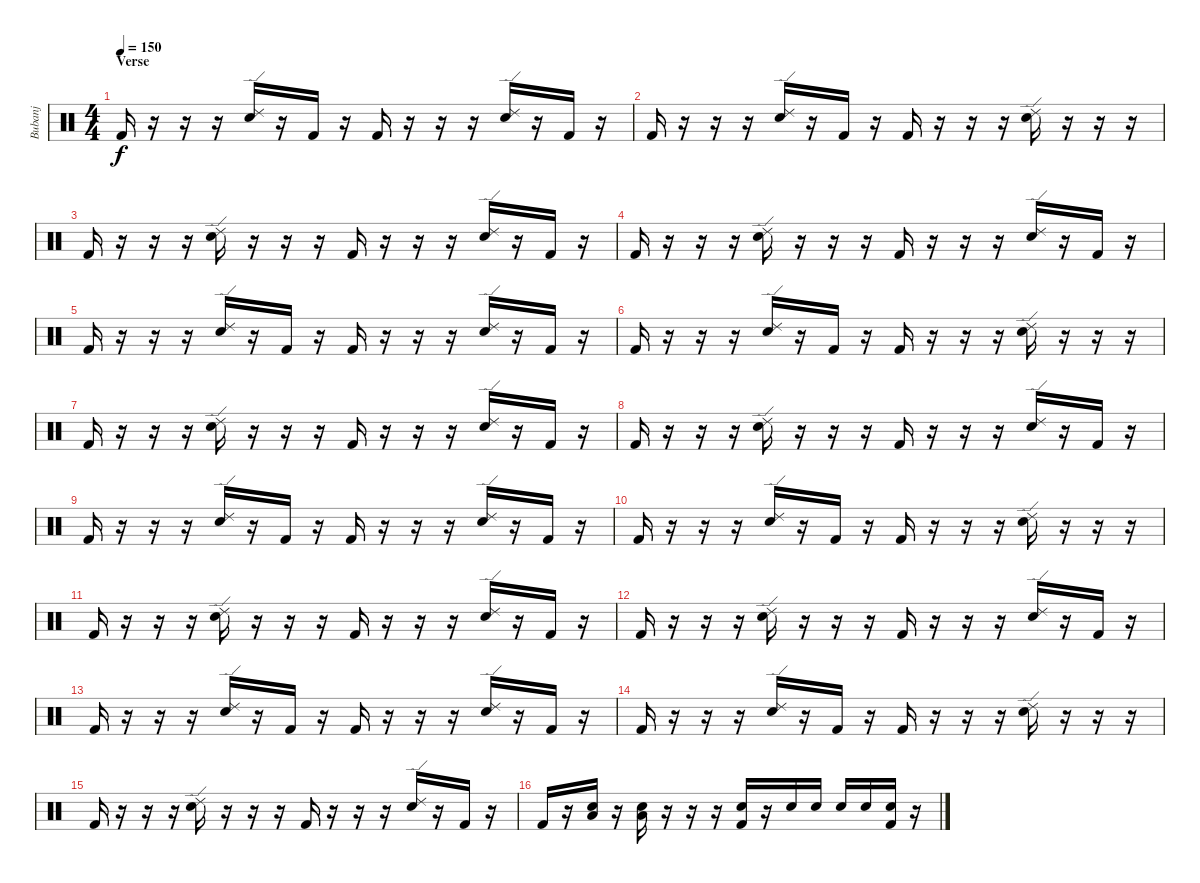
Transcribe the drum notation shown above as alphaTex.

\track ("Bubanj" "Bubanj") {instrument percussion}
\staff {score}
\articulation defaults
\ts (4 4)
\section ("" "Verse")
\tempo 150
\clef neutral
\ks c "Kick (hit) 2".16{dy f}
r.16 r.16 r.16 ("Ride (edge) 2" "Snare (hit) 2").16 r.16 "Kick (hit) 2".16 r.16 "Kick (hit) 2".16 r.16 r.16 r.16 ("Ride (edge) 2" "Snare (hit) 2").16 r.16 "Kick (hit) 2".16 r.16 |
"Kick (hit) 2".16 r.16 r.16 r.16 ("Ride (edge) 2" "Snare (hit) 2").16 r.16 "Kick (hit) 2".16 r.16 "Kick (hit) 2".16 r.16 r.16 r.16 ("Ride (edge) 2" "Snare (hit) 2").16 r.16 r.16 r.16 |
"Kick (hit) 2".16 r.16 r.16 r.16 ("Ride (edge) 2" "Snare (hit) 2").16 r.16 r.16 r.16 "Kick (hit) 2".16 r.16 r.16 r.16 ("Ride (edge) 2" "Snare (hit) 2").16 r.16 "Kick (hit) 2".16 r.16 |
"Kick (hit) 2".16 r.16 r.16 r.16 ("Ride (edge) 2" "Snare (hit) 2").16 r.16 r.16 r.16 "Kick (hit) 2".16 r.16 r.16 r.16 ("Ride (edge) 2" "Snare (hit) 2").16 r.16 "Kick (hit) 2".16 r.16 |
"Kick (hit) 2".16 r.16 r.16 r.16 ("Ride (edge) 2" "Snare (hit) 2").16 r.16 "Kick (hit) 2".16 r.16 "Kick (hit) 2".16 r.16 r.16 r.16 ("Ride (edge) 2" "Snare (hit) 2").16 r.16 "Kick (hit) 2".16 r.16 |
"Kick (hit) 2".16 r.16 r.16 r.16 ("Ride (edge) 2" "Snare (hit) 2").16 r.16 "Kick (hit) 2".16 r.16 "Kick (hit) 2".16 r.16 r.16 r.16 ("Ride (edge) 2" "Snare (hit) 2").16 r.16 r.16 r.16 |
"Kick (hit) 2".16 r.16 r.16 r.16 ("Ride (edge) 2" "Snare (hit) 2").16 r.16 r.16 r.16 "Kick (hit) 2".16 r.16 r.16 r.16 ("Ride (edge) 2" "Snare (hit) 2").16 r.16 "Kick (hit) 2".16 r.16 |
"Kick (hit) 2".16 r.16 r.16 r.16 ("Ride (edge) 2" "Snare (hit) 2").16 r.16 r.16 r.16 "Kick (hit) 2".16 r.16 r.16 r.16 ("Ride (edge) 2" "Snare (hit) 2").16 r.16 "Kick (hit) 2".16 r.16 |
"Kick (hit) 2".16 r.16 r.16 r.16 ("Ride (edge) 2" "Snare (hit) 2").16 r.16 "Kick (hit) 2".16 r.16 "Kick (hit) 2".16 r.16 r.16 r.16 ("Ride (edge) 2" "Snare (hit) 2").16 r.16 "Kick (hit) 2".16 r.16 |
"Kick (hit) 2".16 r.16 r.16 r.16 ("Ride (edge) 2" "Snare (hit) 2").16 r.16 "Kick (hit) 2".16 r.16 "Kick (hit) 2".16 r.16 r.16 r.16 ("Ride (edge) 2" "Snare (hit) 2").16 r.16 r.16 r.16 |
"Kick (hit) 2".16 r.16 r.16 r.16 ("Ride (edge) 2" "Snare (hit) 2").16 r.16 r.16 r.16 "Kick (hit) 2".16 r.16 r.16 r.16 ("Ride (edge) 2" "Snare (hit) 2").16 r.16 "Kick (hit) 2".16 r.16 |
"Kick (hit) 2".16 r.16 r.16 r.16 ("Ride (edge) 2" "Snare (hit) 2").16 r.16 r.16 r.16 "Kick (hit) 2".16 r.16 r.16 r.16 ("Ride (edge) 2" "Snare (hit) 2").16 r.16 "Kick (hit) 2".16 r.16 |
"Kick (hit) 2".16 r.16 r.16 r.16 ("Ride (edge) 2" "Snare (hit) 2").16 r.16 "Kick (hit) 2".16 r.16 "Kick (hit) 2".16 r.16 r.16 r.16 ("Ride (edge) 2" "Snare (hit) 2").16 r.16 "Kick (hit) 2".16 r.16 |
"Kick (hit) 2".16 r.16 r.16 r.16 ("Ride (edge) 2" "Snare (hit) 2").16 r.16 "Kick (hit) 2".16 r.16 "Kick (hit) 2".16 r.16 r.16 r.16 ("Ride (edge) 2" "Snare (hit) 2").16 r.16 r.16 r.16 |
"Kick (hit) 2".16 r.16 r.16 r.16 ("Ride (edge) 2" "Snare (hit) 2").16 r.16 r.16 r.16 "Kick (hit) 2".16 r.16 r.16 r.16 ("Ride (edge) 2" "Snare (hit) 2").16 r.16 "Kick (hit) 2".16 r.16 |
"Kick (hit) 2".16 r.16 ("Low Tom (hit)" "Snare (hit) 2").16 r.16 ("Low Tom (hit)" "Snare (hit) 2").16 r.16 r.16 r.16 ("Snare (hit) 2" "Kick (hit) 2").16 r.16 "Snare (hit) 2".16 "Snare (hit) 2".16 "Snare (hit) 2".16 "Snare (hit) 2".16 ("Snare (hit) 2" "Kick (hit) 2").16 r.16
